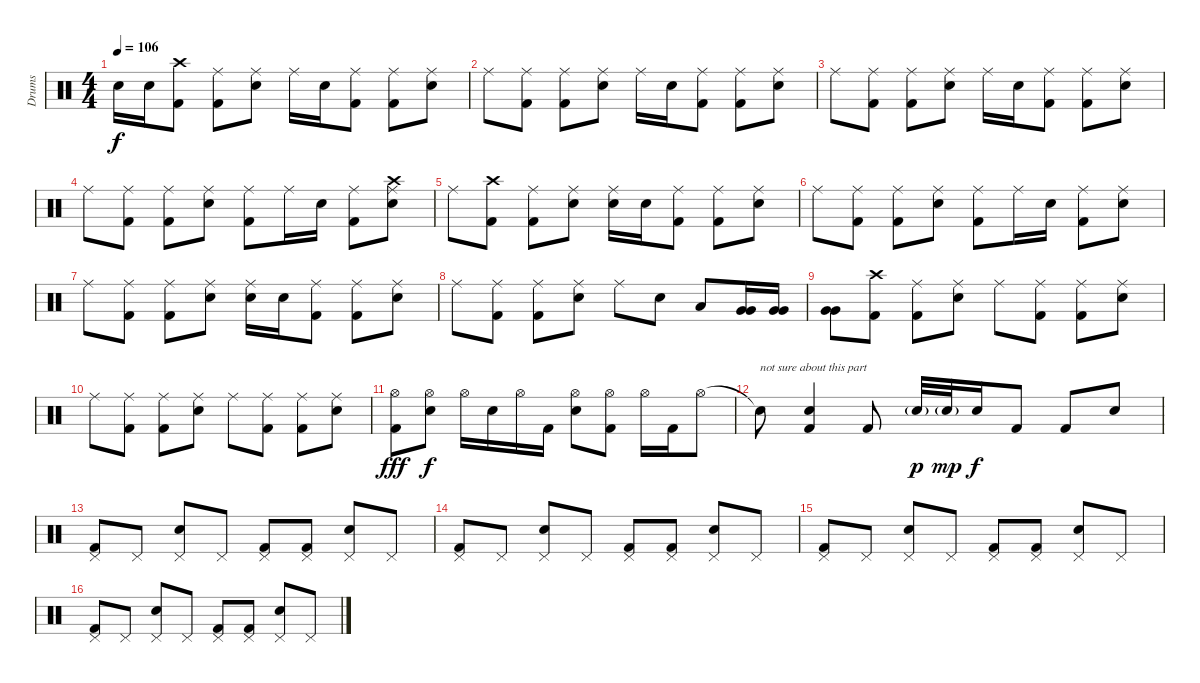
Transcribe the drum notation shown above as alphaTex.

\track ("Drums" "Drums") {instrument percussion}
\staff {score}
\articulation defaults
\ts (4 4)
\tempo 106
\clef neutral
\ks c "Snare (hit) 2".16{dy f} "Snare (hit) 2".16
("Crash high (hit)" "Kick (hit) 2").8 ("Ride (middle)" "Kick (hit) 2").8 ("Ride (middle)" "Snare (hit) 2").8 "Ride (middle)".16 "Snare (hit) 2".16 ("Ride (middle)" "Kick (hit) 2").8 ("Ride (middle)" "Kick (hit) 2").8 ("Ride (middle)" "Snare (hit) 2").8 |
"Ride (middle)".8 ("Ride (middle)" "Kick (hit) 2").8 ("Ride (middle)" "Kick (hit) 2").8 ("Ride (middle)" "Snare (hit) 2").8 "Ride (middle)".16 "Snare (hit) 2".16 ("Ride (middle)" "Kick (hit) 2").8 ("Ride (middle)" "Kick (hit) 2").8 ("Ride (middle)" "Snare (hit) 2").8 |
"Ride (middle)".8 ("Ride (middle)" "Kick (hit) 2").8 ("Ride (middle)" "Kick (hit) 2").8 ("Ride (middle)" "Snare (hit) 2").8 "Ride (middle)".16 "Snare (hit) 2".16 ("Ride (middle)" "Kick (hit) 2").8 ("Ride (middle)" "Kick (hit) 2").8 ("Ride (middle)" "Snare (hit) 2").8 |
"Ride (middle)".8 ("Ride (middle)" "Kick (hit) 2").8 ("Ride (middle)" "Kick (hit) 2").8 ("Ride (middle)" "Snare (hit) 2").8 ("Ride (middle)" "Kick (hit) 2").8 "Ride (middle)".16 "Snare (hit) 2".16 ("Ride (middle)" "Kick (hit) 2").8 ("Crash high (hit)" "Ride (middle)" "Snare (hit) 2").8 |
"Ride (middle)".8 ("Crash high (hit)" "Kick (hit) 2").8 ("Ride (middle)" "Kick (hit) 2").8 ("Ride (middle)" "Snare (hit) 2").8 ("Ride (middle)" "Snare (hit) 2").16 "Snare (hit) 2".16 ("Ride (middle)" "Kick (hit) 2").8 ("Ride (middle)" "Kick (hit) 2").8 ("Ride (middle)" "Snare (hit) 2").8 |
"Ride (middle)".8 ("Ride (middle)" "Kick (hit) 2").8 ("Ride (middle)" "Kick (hit) 2").8 ("Ride (middle)" "Snare (hit) 2").8 ("Ride (middle)" "Kick (hit) 2").8 "Ride (middle)".16 "Snare (hit) 2".16 ("Ride (middle)" "Kick (hit) 2").8 ("Ride (middle)" "Snare (hit) 2").8 |
"Ride (middle)".8 ("Ride (middle)" "Kick (hit) 2").8 ("Ride (middle)" "Kick (hit) 2").8 ("Ride (middle)" "Snare (hit) 2").8 ("Ride (middle)" "Snare (hit) 2").16 "Snare (hit) 2".16 ("Ride (middle)" "Kick (hit) 2").8 ("Ride (middle)" "Kick (hit) 2").8 ("Ride (middle)" "Snare (hit) 2").8 |
"Ride (middle)".8 ("Ride (middle)" "Kick (hit) 2").8 ("Ride (middle)" "Kick (hit) 2").8 ("Ride (middle)" "Snare (hit) 2").8 "Ride (middle)".8 "Snare (hit) 2".8 "Low Floor Tom (hit)".8 ("Very Low Tom (hit)" "Very Low Tom (hit)").16 ("Very Low Tom (hit)" "Very Low Tom (hit)").16 |
("Very Low Tom (hit)" "Very Low Tom (hit)").8 ("Crash high (hit)" "Kick (hit) 2").8 ("Ride (middle)" "Kick (hit) 2").8 ("Ride (middle)" "Snare (hit) 2").8 "Ride (middle)".8 ("Ride (middle)" "Kick (hit) 2").8 ("Ride (middle)" "Kick (hit) 2").8 ("Ride (middle)" "Snare (hit) 2").8 |
"Ride (middle)".8 ("Ride (middle)" "Kick (hit) 2").8 ("Ride (middle)" "Kick (hit) 2").8 ("Ride (middle)" "Snare (hit) 2").8 "Ride (middle)".8 ("Ride (middle)" "Kick (hit) 2").8 ("Ride (middle)" "Kick (hit) 2").8 ("Ride (middle)" "Snare (hit) 2").8 |
("Hi-Hat (open)" "Kick (hit) 2").8{dy fff} ("Hi-Hat (open)" "Snare (hit) 2").8{dy f} "Hi-Hat (open)".16 "Snare (hit) 2".16 "Hi-Hat (open)".16 "Kick (hit) 2".16 ("Hi-Hat (open)" "Snare (hit) 2").8 ("Hi-Hat (open)" "Kick (hit) 2").8 "Hi-Hat (open)".16 "Kick (hit) 2".16 "Hi-Hat (open)".8 |
"Snare (hit)"{t}.8{txt "not sure about this part"} ("Snare (hit) 2" "Kick (hit) 2").4 "Kick (hit) 2".8 "Snare (hit) 2"{g}.32{dy p} "Snare (hit) 2"{g}.32{dy mp} "Snare (hit) 2".16{dy f} "Kick (hit) 2".8 "Kick (hit) 2".8 "Snare (hit) 2".8 |
("Pedal Hi-Hat (hit)" "Kick (hit) 2").8 "Pedal Hi-Hat (hit)".8 ("Pedal Hi-Hat (hit)" "Snare (hit) 2").8 "Pedal Hi-Hat (hit)".8 ("Pedal Hi-Hat (hit)" "Kick (hit) 2").8 ("Pedal Hi-Hat (hit)" "Kick (hit) 2").8 ("Pedal Hi-Hat (hit)" "Snare (hit) 2").8 "Pedal Hi-Hat (hit)".8 |
("Pedal Hi-Hat (hit)" "Kick (hit) 2").8 "Pedal Hi-Hat (hit)".8 ("Pedal Hi-Hat (hit)" "Snare (hit) 2").8 "Pedal Hi-Hat (hit)".8 ("Pedal Hi-Hat (hit)" "Kick (hit) 2").8 ("Pedal Hi-Hat (hit)" "Kick (hit) 2").8 ("Pedal Hi-Hat (hit)" "Snare (hit) 2").8 "Pedal Hi-Hat (hit)".8 |
("Pedal Hi-Hat (hit)" "Kick (hit) 2").8 "Pedal Hi-Hat (hit)".8 ("Pedal Hi-Hat (hit)" "Snare (hit) 2").8 "Pedal Hi-Hat (hit)".8 ("Pedal Hi-Hat (hit)" "Kick (hit) 2").8 ("Pedal Hi-Hat (hit)" "Kick (hit) 2").8 ("Pedal Hi-Hat (hit)" "Snare (hit) 2").8 "Pedal Hi-Hat (hit)".8 |
("Pedal Hi-Hat (hit)" "Kick (hit) 2").8 "Pedal Hi-Hat (hit)".8 ("Pedal Hi-Hat (hit)" "Snare (hit) 2").8 "Pedal Hi-Hat (hit)".8 ("Pedal Hi-Hat (hit)" "Kick (hit) 2").8 ("Pedal Hi-Hat (hit)" "Kick (hit) 2").8 ("Pedal Hi-Hat (hit)" "Snare (hit) 2").8 "Pedal Hi-Hat (hit)".8
